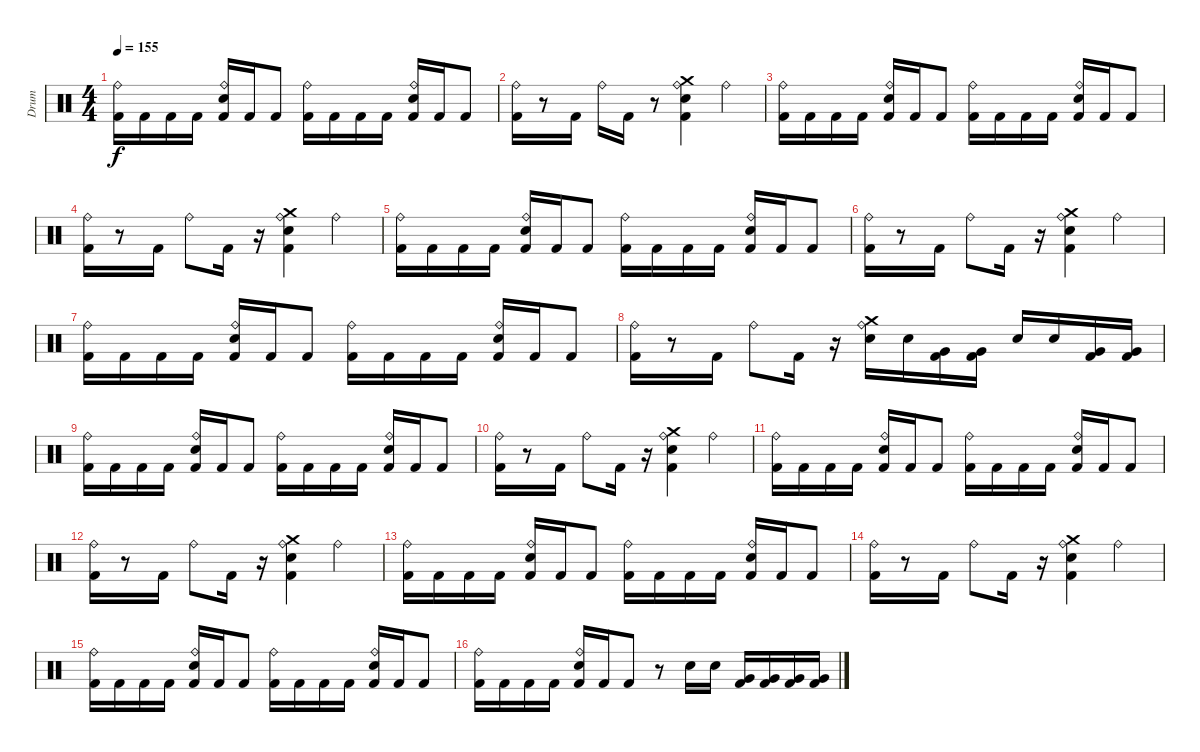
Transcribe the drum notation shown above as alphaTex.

\track ("Drum" "Drum") {instrument percussion}
\staff {score}
\articulation defaults
\ts (4 4)
\tempo 155
\clef neutral
\ks c
("Kick (hit) 2" "Ride (bell)").16{dy f} "Kick (hit) 2".16 "Kick (hit) 2".16 "Kick (hit) 2".16 ("Kick (hit) 2" "Ride (bell)" "Electric Snare (hit)").16 "Kick (hit) 2".16 "Kick (hit) 2".8 ("Kick (hit) 2" "Ride (bell)").16 "Kick (hit) 2".16 "Kick (hit) 2".16 "Kick (hit) 2".16 ("Kick (hit) 2" "Ride (bell)" "Electric Snare (hit)").16 "Kick (hit) 2".16 "Kick (hit) 2".8 |
("Kick (hit) 2" "Ride (bell)").16 r.8 "Kick (hit) 2".16 "Ride (bell)".16 "Kick (hit) 2".16 r.8 ("Kick (hit) 2" "Crash medium (hit)" "Ride (bell)" "Electric Snare (hit)").4 "Ride (bell)".4 |
("Kick (hit) 2" "Ride (bell)").16 "Kick (hit) 2".16 "Kick (hit) 2".16 "Kick (hit) 2".16 ("Kick (hit) 2" "Ride (bell)" "Electric Snare (hit)").16 "Kick (hit) 2".16 "Kick (hit) 2".8 ("Kick (hit) 2" "Ride (bell)").16 "Kick (hit) 2".16 "Kick (hit) 2".16 "Kick (hit) 2".16 ("Kick (hit) 2" "Ride (bell)" "Electric Snare (hit)").16 "Kick (hit) 2".16 "Kick (hit) 2".8 |
("Kick (hit) 2" "Ride (bell)").16 r.8 "Kick (hit) 2".16 "Ride (bell)".8 "Kick (hit) 2".16 r.16 ("Kick (hit) 2" "Crash medium (hit)" "Ride (bell)" "Electric Snare (hit)").4 "Ride (bell)".4 |
("Kick (hit) 2" "Ride (bell)").16 "Kick (hit) 2".16 "Kick (hit) 2".16 "Kick (hit) 2".16 ("Kick (hit) 2" "Ride (bell)" "Electric Snare (hit)").16 "Kick (hit) 2".16 "Kick (hit) 2".8 ("Kick (hit) 2" "Ride (bell)").16 "Kick (hit) 2".16 "Kick (hit) 2".16 "Kick (hit) 2".16 ("Kick (hit) 2" "Ride (bell)" "Electric Snare (hit)").16 "Kick (hit) 2".16 "Kick (hit) 2".8 |
("Kick (hit) 2" "Ride (bell)").16 r.8 "Kick (hit) 2".16 "Ride (bell)".8 "Kick (hit) 2".16 r.16 ("Kick (hit) 2" "Crash medium (hit)" "Ride (bell)" "Electric Snare (hit)").4 "Ride (bell)".4 |
("Kick (hit) 2" "Ride (bell)").16 "Kick (hit) 2".16 "Kick (hit) 2".16 "Kick (hit) 2".16 ("Kick (hit) 2" "Ride (bell)" "Electric Snare (hit)").16 "Kick (hit) 2".16 "Kick (hit) 2".8 ("Kick (hit) 2" "Ride (bell)").16 "Kick (hit) 2".16 "Kick (hit) 2".16 "Kick (hit) 2".16 ("Kick (hit) 2" "Ride (bell)" "Electric Snare (hit)").16 "Kick (hit) 2".16 "Kick (hit) 2".8 |
("Kick (hit) 2" "Ride (bell)").16 r.8 "Kick (hit) 2".16 "Ride (bell)".8 "Kick (hit) 2".16 r.16 ("Crash medium (hit)" "Ride (bell)" "Electric Snare (hit)").16 "Electric Snare (hit)".16 ("Kick (hit) 2" "Very Low Tom (hit)").16 ("Kick (hit) 2" "Very Low Tom (hit)").16 "Electric Snare (hit)".16 "Electric Snare (hit)".16 ("Kick (hit) 2" "Very Low Tom (hit)").16 ("Kick (hit) 2" "Very Low Tom (hit)").16 |
("Kick (hit) 2" "Ride (bell)").16 "Kick (hit) 2".16 "Kick (hit) 2".16 "Kick (hit) 2".16 ("Kick (hit) 2" "Ride (bell)" "Electric Snare (hit)").16 "Kick (hit) 2".16 "Kick (hit) 2".8 ("Kick (hit) 2" "Ride (bell)").16 "Kick (hit) 2".16 "Kick (hit) 2".16 "Kick (hit) 2".16 ("Kick (hit) 2" "Ride (bell)" "Electric Snare (hit)").16 "Kick (hit) 2".16 "Kick (hit) 2".8 |
("Kick (hit) 2" "Ride (bell)").16 r.8 "Kick (hit) 2".16 "Ride (bell)".8 "Kick (hit) 2".16 r.16 ("Kick (hit) 2" "Crash medium (hit)" "Ride (bell)" "Electric Snare (hit)").4 "Ride (bell)".4 |
("Kick (hit) 2" "Ride (bell)").16 "Kick (hit) 2".16 "Kick (hit) 2".16 "Kick (hit) 2".16 ("Kick (hit) 2" "Ride (bell)" "Electric Snare (hit)").16 "Kick (hit) 2".16 "Kick (hit) 2".8 ("Kick (hit) 2" "Ride (bell)").16 "Kick (hit) 2".16 "Kick (hit) 2".16 "Kick (hit) 2".16 ("Kick (hit) 2" "Ride (bell)" "Electric Snare (hit)").16 "Kick (hit) 2".16 "Kick (hit) 2".8 |
("Kick (hit) 2" "Ride (bell)").16 r.8 "Kick (hit) 2".16 "Ride (bell)".8 "Kick (hit) 2".16 r.16 ("Kick (hit) 2" "Crash medium (hit)" "Ride (bell)" "Electric Snare (hit)").4 "Ride (bell)".4 |
("Kick (hit) 2" "Ride (bell)").16 "Kick (hit) 2".16 "Kick (hit) 2".16 "Kick (hit) 2".16 ("Kick (hit) 2" "Ride (bell)" "Electric Snare (hit)").16 "Kick (hit) 2".16 "Kick (hit) 2".8 ("Kick (hit) 2" "Ride (bell)").16 "Kick (hit) 2".16 "Kick (hit) 2".16 "Kick (hit) 2".16 ("Kick (hit) 2" "Ride (bell)" "Electric Snare (hit)").16 "Kick (hit) 2".16 "Kick (hit) 2".8 |
("Kick (hit) 2" "Ride (bell)").16 r.8 "Kick (hit) 2".16 "Ride (bell)".8 "Kick (hit) 2".16 r.16 ("Kick (hit) 2" "Crash medium (hit)" "Ride (bell)" "Electric Snare (hit)").4 "Ride (bell)".4 |
("Kick (hit) 2" "Ride (bell)").16 "Kick (hit) 2".16 "Kick (hit) 2".16 "Kick (hit) 2".16 ("Kick (hit) 2" "Ride (bell)" "Electric Snare (hit)").16 "Kick (hit) 2".16 "Kick (hit) 2".8 ("Kick (hit) 2" "Ride (bell)").16 "Kick (hit) 2".16 "Kick (hit) 2".16 "Kick (hit) 2".16 ("Kick (hit) 2" "Ride (bell)" "Electric Snare (hit)").16 "Kick (hit) 2".16 "Kick (hit) 2".8 |
("Kick (hit) 2" "Ride (bell)").16 "Kick (hit) 2".16 "Kick (hit) 2".16 "Kick (hit) 2".16 ("Kick (hit) 2" "Ride (bell)" "Electric Snare (hit)").16 "Kick (hit) 2".16 "Kick (hit) 2".8 r.8 "Electric Snare (hit)".16 "Electric Snare (hit)".16 ("Kick (hit) 2" "Very Low Tom (hit)").16 ("Kick (hit) 2" "Very Low Tom (hit)").16 ("Kick (hit) 2" "Very Low Tom (hit)").16 ("Kick (hit) 2" "Very Low Tom (hit)").16
